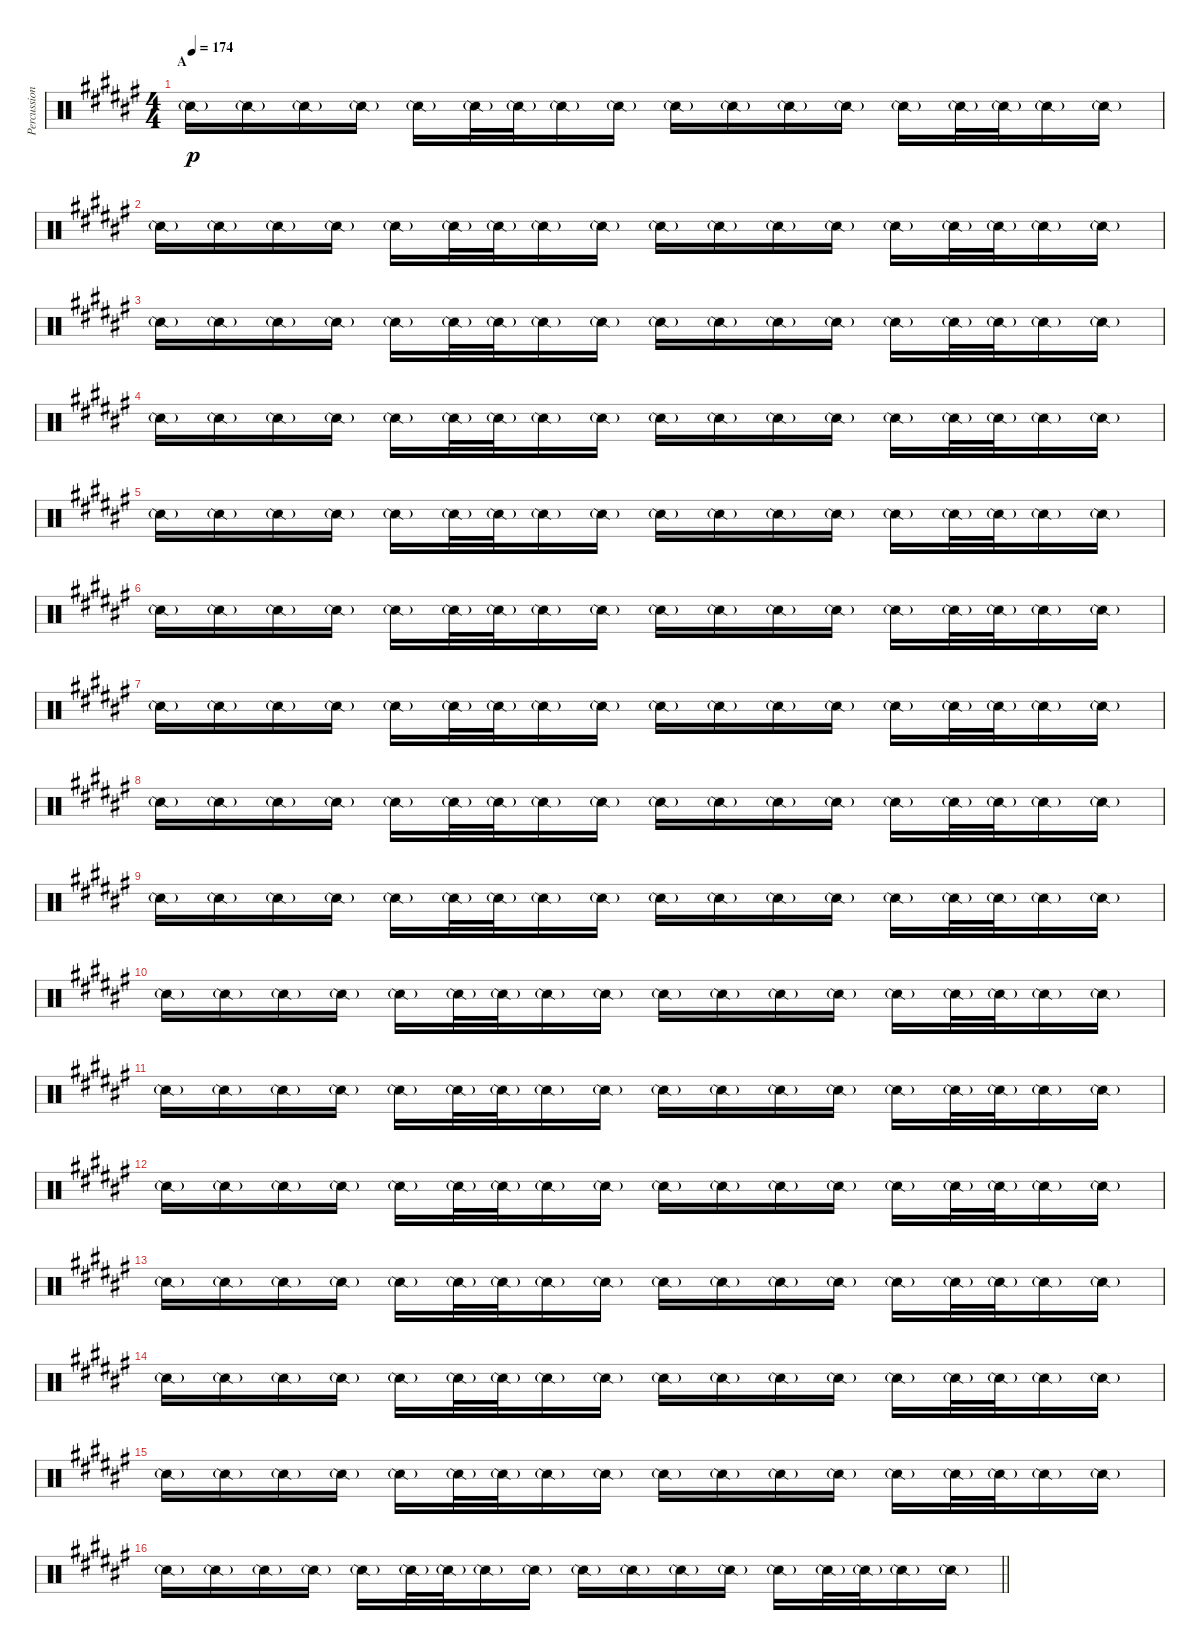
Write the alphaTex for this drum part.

\track ("Percussion I" "Percussion") {instrument percussion}
\staff {score}
\articulation defaults
\ts (4 4)
\section ("" "A")
\tempo 174
\clef neutral
\ks f# "Snare (side stick) 2"{g}.16{dy p} "Snare (side stick) 2"{g}.16 "Snare (side stick) 2"{g}.16 "Snare (side stick) 2"{g}.16 "Snare (side stick) 2"{g}.16 "Snare (side stick) 2"{g}.32 "Snare (side stick) 2"{g}.32 "Snare (side stick) 2"{g}.16 "Snare (side stick) 2"{g}.16 "Snare (side stick) 2"{g}.16 "Snare (side stick) 2"{g}.16 "Snare (side stick) 2"{g}.16 "Snare (side stick) 2"{g}.16 "Snare (side stick) 2"{g}.16 "Snare (side stick) 2"{g}.32 "Snare (side stick) 2"{g}.32 "Snare (side stick) 2"{g}.16 "Snare (side stick) 2"{g}.16
|
"Snare (side stick) 2"{g}.16 "Snare (side stick) 2"{g}.16 "Snare (side stick) 2"{g}.16 "Snare (side stick) 2"{g}.16 "Snare (side stick) 2"{g}.16 "Snare (side stick) 2"{g}.32 "Snare (side stick) 2"{g}.32 "Snare (side stick) 2"{g}.16 "Snare (side stick) 2"{g}.16 "Snare (side stick) 2"{g}.16 "Snare (side stick) 2"{g}.16 "Snare (side stick) 2"{g}.16 "Snare (side stick) 2"{g}.16 "Snare (side stick) 2"{g}.16 "Snare (side stick) 2"{g}.32 "Snare (side stick) 2"{g}.32 "Snare (side stick) 2"{g}.16 "Snare (side stick) 2"{g}.16 |
"Snare (side stick) 2"{g}.16 "Snare (side stick) 2"{g}.16 "Snare (side stick) 2"{g}.16 "Snare (side stick) 2"{g}.16 "Snare (side stick) 2"{g}.16 "Snare (side stick) 2"{g}.32 "Snare (side stick) 2"{g}.32 "Snare (side stick) 2"{g}.16 "Snare (side stick) 2"{g}.16 "Snare (side stick) 2"{g}.16 "Snare (side stick) 2"{g}.16 "Snare (side stick) 2"{g}.16 "Snare (side stick) 2"{g}.16 "Snare (side stick) 2"{g}.16 "Snare (side stick) 2"{g}.32 "Snare (side stick) 2"{g}.32 "Snare (side stick) 2"{g}.16 "Snare (side stick) 2"{g}.16 |
"Snare (side stick) 2"{g}.16 "Snare (side stick) 2"{g}.16 "Snare (side stick) 2"{g}.16 "Snare (side stick) 2"{g}.16 "Snare (side stick) 2"{g}.16 "Snare (side stick) 2"{g}.32 "Snare (side stick) 2"{g}.32 "Snare (side stick) 2"{g}.16 "Snare (side stick) 2"{g}.16 "Snare (side stick) 2"{g}.16 "Snare (side stick) 2"{g}.16 "Snare (side stick) 2"{g}.16 "Snare (side stick) 2"{g}.16 "Snare (side stick) 2"{g}.16 "Snare (side stick) 2"{g}.32 "Snare (side stick) 2"{g}.32 "Snare (side stick) 2"{g}.16 "Snare (side stick) 2"{g}.16 |
"Snare (side stick) 2"{g}.16 "Snare (side stick) 2"{g}.16 "Snare (side stick) 2"{g}.16 "Snare (side stick) 2"{g}.16 "Snare (side stick) 2"{g}.16 "Snare (side stick) 2"{g}.32 "Snare (side stick) 2"{g}.32 "Snare (side stick) 2"{g}.16 "Snare (side stick) 2"{g}.16 "Snare (side stick) 2"{g}.16 "Snare (side stick) 2"{g}.16 "Snare (side stick) 2"{g}.16 "Snare (side stick) 2"{g}.16 "Snare (side stick) 2"{g}.16 "Snare (side stick) 2"{g}.32 "Snare (side stick) 2"{g}.32 "Snare (side stick) 2"{g}.16 "Snare (side stick) 2"{g}.16 |
"Snare (side stick) 2"{g}.16 "Snare (side stick) 2"{g}.16 "Snare (side stick) 2"{g}.16 "Snare (side stick) 2"{g}.16 "Snare (side stick) 2"{g}.16 "Snare (side stick) 2"{g}.32 "Snare (side stick) 2"{g}.32 "Snare (side stick) 2"{g}.16 "Snare (side stick) 2"{g}.16 "Snare (side stick) 2"{g}.16 "Snare (side stick) 2"{g}.16 "Snare (side stick) 2"{g}.16 "Snare (side stick) 2"{g}.16 "Snare (side stick) 2"{g}.16 "Snare (side stick) 2"{g}.32 "Snare (side stick) 2"{g}.32 "Snare (side stick) 2"{g}.16 "Snare (side stick) 2"{g}.16 |
"Snare (side stick) 2"{g}.16 "Snare (side stick) 2"{g}.16 "Snare (side stick) 2"{g}.16 "Snare (side stick) 2"{g}.16 "Snare (side stick) 2"{g}.16 "Snare (side stick) 2"{g}.32 "Snare (side stick) 2"{g}.32 "Snare (side stick) 2"{g}.16 "Snare (side stick) 2"{g}.16 "Snare (side stick) 2"{g}.16 "Snare (side stick) 2"{g}.16 "Snare (side stick) 2"{g}.16 "Snare (side stick) 2"{g}.16 "Snare (side stick) 2"{g}.16 "Snare (side stick) 2"{g}.32 "Snare (side stick) 2"{g}.32 "Snare (side stick) 2"{g}.16 "Snare (side stick) 2"{g}.16 |
"Snare (side stick) 2"{g}.16 "Snare (side stick) 2"{g}.16 "Snare (side stick) 2"{g}.16 "Snare (side stick) 2"{g}.16 "Snare (side stick) 2"{g}.16 "Snare (side stick) 2"{g}.32 "Snare (side stick) 2"{g}.32 "Snare (side stick) 2"{g}.16 "Snare (side stick) 2"{g}.16 "Snare (side stick) 2"{g}.16 "Snare (side stick) 2"{g}.16 "Snare (side stick) 2"{g}.16 "Snare (side stick) 2"{g}.16 "Snare (side stick) 2"{g}.16 "Snare (side stick) 2"{g}.32 "Snare (side stick) 2"{g}.32 "Snare (side stick) 2"{g}.16 "Snare (side stick) 2"{g}.16 |
"Snare (side stick) 2"{g}.16 "Snare (side stick) 2"{g}.16 "Snare (side stick) 2"{g}.16 "Snare (side stick) 2"{g}.16 "Snare (side stick) 2"{g}.16 "Snare (side stick) 2"{g}.32 "Snare (side stick) 2"{g}.32 "Snare (side stick) 2"{g}.16 "Snare (side stick) 2"{g}.16 "Snare (side stick) 2"{g}.16 "Snare (side stick) 2"{g}.16 "Snare (side stick) 2"{g}.16 "Snare (side stick) 2"{g}.16 "Snare (side stick) 2"{g}.16 "Snare (side stick) 2"{g}.32 "Snare (side stick) 2"{g}.32 "Snare (side stick) 2"{g}.16 "Snare (side stick) 2"{g}.16 |
"Snare (side stick) 2"{g}.16 "Snare (side stick) 2"{g}.16 "Snare (side stick) 2"{g}.16 "Snare (side stick) 2"{g}.16 "Snare (side stick) 2"{g}.16 "Snare (side stick) 2"{g}.32 "Snare (side stick) 2"{g}.32 "Snare (side stick) 2"{g}.16 "Snare (side stick) 2"{g}.16 "Snare (side stick) 2"{g}.16 "Snare (side stick) 2"{g}.16 "Snare (side stick) 2"{g}.16 "Snare (side stick) 2"{g}.16 "Snare (side stick) 2"{g}.16 "Snare (side stick) 2"{g}.32 "Snare (side stick) 2"{g}.32 "Snare (side stick) 2"{g}.16 "Snare (side stick) 2"{g}.16 |
"Snare (side stick) 2"{g}.16 "Snare (side stick) 2"{g}.16 "Snare (side stick) 2"{g}.16 "Snare (side stick) 2"{g}.16 "Snare (side stick) 2"{g}.16 "Snare (side stick) 2"{g}.32 "Snare (side stick) 2"{g}.32 "Snare (side stick) 2"{g}.16 "Snare (side stick) 2"{g}.16 "Snare (side stick) 2"{g}.16 "Snare (side stick) 2"{g}.16 "Snare (side stick) 2"{g}.16 "Snare (side stick) 2"{g}.16 "Snare (side stick) 2"{g}.16 "Snare (side stick) 2"{g}.32 "Snare (side stick) 2"{g}.32 "Snare (side stick) 2"{g}.16 "Snare (side stick) 2"{g}.16 |
"Snare (side stick) 2"{g}.16 "Snare (side stick) 2"{g}.16 "Snare (side stick) 2"{g}.16 "Snare (side stick) 2"{g}.16 "Snare (side stick) 2"{g}.16 "Snare (side stick) 2"{g}.32 "Snare (side stick) 2"{g}.32 "Snare (side stick) 2"{g}.16 "Snare (side stick) 2"{g}.16 "Snare (side stick) 2"{g}.16 "Snare (side stick) 2"{g}.16 "Snare (side stick) 2"{g}.16 "Snare (side stick) 2"{g}.16 "Snare (side stick) 2"{g}.16 "Snare (side stick) 2"{g}.32 "Snare (side stick) 2"{g}.32 "Snare (side stick) 2"{g}.16 "Snare (side stick) 2"{g}.16 |
"Snare (side stick) 2"{g}.16 "Snare (side stick) 2"{g}.16 "Snare (side stick) 2"{g}.16 "Snare (side stick) 2"{g}.16 "Snare (side stick) 2"{g}.16 "Snare (side stick) 2"{g}.32 "Snare (side stick) 2"{g}.32 "Snare (side stick) 2"{g}.16 "Snare (side stick) 2"{g}.16 "Snare (side stick) 2"{g}.16 "Snare (side stick) 2"{g}.16 "Snare (side stick) 2"{g}.16 "Snare (side stick) 2"{g}.16 "Snare (side stick) 2"{g}.16 "Snare (side stick) 2"{g}.32 "Snare (side stick) 2"{g}.32 "Snare (side stick) 2"{g}.16 "Snare (side stick) 2"{g}.16 |
"Snare (side stick) 2"{g}.16 "Snare (side stick) 2"{g}.16 "Snare (side stick) 2"{g}.16 "Snare (side stick) 2"{g}.16 "Snare (side stick) 2"{g}.16 "Snare (side stick) 2"{g}.32 "Snare (side stick) 2"{g}.32 "Snare (side stick) 2"{g}.16 "Snare (side stick) 2"{g}.16 "Snare (side stick) 2"{g}.16 "Snare (side stick) 2"{g}.16 "Snare (side stick) 2"{g}.16 "Snare (side stick) 2"{g}.16 "Snare (side stick) 2"{g}.16 "Snare (side stick) 2"{g}.32 "Snare (side stick) 2"{g}.32 "Snare (side stick) 2"{g}.16 "Snare (side stick) 2"{g}.16 |
"Snare (side stick) 2"{g}.16 "Snare (side stick) 2"{g}.16 "Snare (side stick) 2"{g}.16 "Snare (side stick) 2"{g}.16 "Snare (side stick) 2"{g}.16 "Snare (side stick) 2"{g}.32 "Snare (side stick) 2"{g}.32 "Snare (side stick) 2"{g}.16 "Snare (side stick) 2"{g}.16 "Snare (side stick) 2"{g}.16 "Snare (side stick) 2"{g}.16 "Snare (side stick) 2"{g}.16 "Snare (side stick) 2"{g}.16 "Snare (side stick) 2"{g}.16 "Snare (side stick) 2"{g}.32 "Snare (side stick) 2"{g}.32 "Snare (side stick) 2"{g}.16 "Snare (side stick) 2"{g}.16 |
\barLineRight lightlight "Snare (side stick) 2"{g}.16 "Snare (side stick) 2"{g}.16 "Snare (side stick) 2"{g}.16 "Snare (side stick) 2"{g}.16 "Snare (side stick) 2"{g}.16 "Snare (side stick) 2"{g}.32 "Snare (side stick) 2"{g}.32 "Snare (side stick) 2"{g}.16 "Snare (side stick) 2"{g}.16 "Snare (side stick) 2"{g}.16 "Snare (side stick) 2"{g}.16 "Snare (side stick) 2"{g}.16 "Snare (side stick) 2"{g}.16 "Snare (side stick) 2"{g}.16 "Snare (side stick) 2"{g}.32 "Snare (side stick) 2"{g}.32 "Snare (side stick) 2"{g}.16 "Snare (side stick) 2"{g}.16
